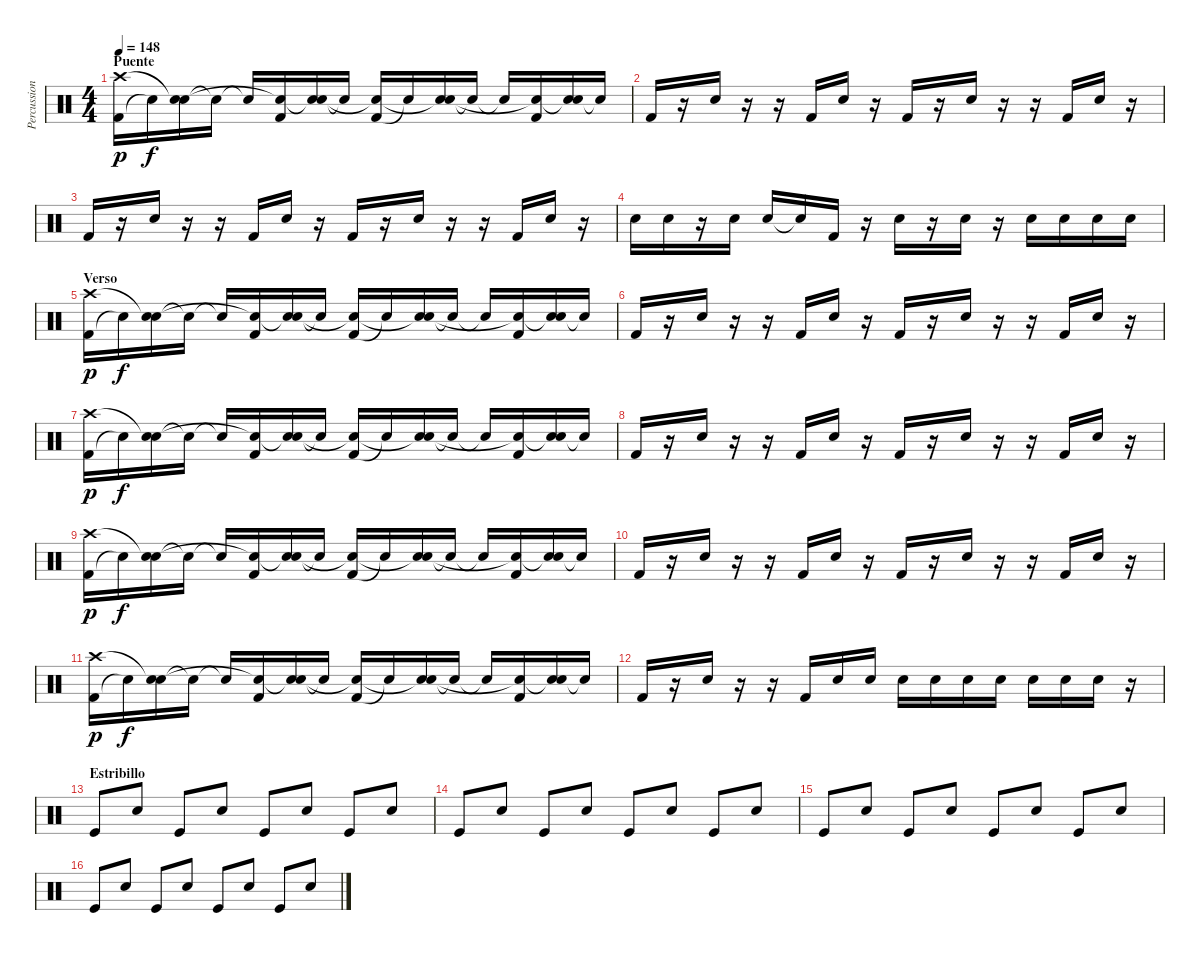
\track ("Percussion" "Percussion") {instrument percussion}
\staff {score}
\articulation defaults
\ts (4 4)
\section ("" "Puente")
\tempo 148
\clef neutral
\ks c
("Kick (hit) 2" "Crash high (hit)").16{dy p} "Snare (hit)"{t}.16{dy f} ("Electric Snare (hit)" "Snare (hit)"{t}).16 "Snare (hit)"{t}.16 "Snare (hit)"{t}.16 ("Kick (hit) 2" "Snare (hit)"{t}).16 ("Electric Snare (hit)" "Snare (hit)"{t}).16 "Snare (hit)"{t}.16 ("Kick (hit) 2" "Snare (hit)"{t}).16 "Snare (hit)"{t}.16 ("Electric Snare (hit)" "Snare (hit)"{t}).16 "Snare (hit)"{t}.16 "Snare (hit)"{t}.16 ("Kick (hit) 2" "Snare (hit)"{t}).16 ("Electric Snare (hit)" "Snare (hit)"{t}).16 "Snare (hit)"{t}.16 |
"Kick (hit) 2".16 r.16 "Electric Snare (hit)".16 r.16 r.16 "Kick (hit) 2".16 "Electric Snare (hit)".16 r.16 "Kick (hit) 2".16 r.16 "Electric Snare (hit)".16 r.16 r.16 "Kick (hit) 2".16 "Electric Snare (hit)".16 r.16 |
"Kick (hit) 2".16 r.16 "Electric Snare (hit)".16 r.16 r.16 "Kick (hit) 2".16 "Electric Snare (hit)".16 r.16 "Kick (hit) 2".16 r.16 "Electric Snare (hit)".16 r.16 r.16 "Kick (hit) 2".16 "Electric Snare (hit)".16 r.16 |
"Electric Snare (hit)".16 "Electric Snare (hit)".16 r.16 "Electric Snare (hit)".16 "Electric Snare (hit)".16 "Electric Snare (hit)"{t}.16 "Kick (hit) 2".16 r.16 "Electric Snare (hit)".16 r.16 "Electric Snare (hit)".16 r.16 "Electric Snare (hit)".16 "Electric Snare (hit)".16 "Electric Snare (hit)".16 "Electric Snare (hit)".16 |
\section ("" "Verso")
("Kick (hit) 2" "Crash high (hit)").16{dy p} "Snare (hit)"{t}.16{dy f} ("Electric Snare (hit)" "Snare (hit)"{t}).16 "Snare (hit)"{t}.16 "Snare (hit)"{t}.16 ("Kick (hit) 2" "Snare (hit)"{t}).16 ("Electric Snare (hit)" "Snare (hit)"{t}).16 "Snare (hit)"{t}.16 ("Kick (hit) 2" "Snare (hit)"{t}).16 "Snare (hit)"{t}.16 ("Electric Snare (hit)" "Snare (hit)"{t}).16 "Snare (hit)"{t}.16 "Snare (hit)"{t}.16 ("Kick (hit) 2" "Snare (hit)"{t}).16 ("Electric Snare (hit)" "Snare (hit)"{t}).16 "Snare (hit)"{t}.16 |
"Kick (hit) 2".16 r.16 "Electric Snare (hit)".16 r.16 r.16 "Kick (hit) 2".16 "Electric Snare (hit)".16 r.16 "Kick (hit) 2".16 r.16 "Electric Snare (hit)".16 r.16 r.16 "Kick (hit) 2".16 "Electric Snare (hit)".16 r.16 |
("Kick (hit) 2" "Crash high (hit)").16{dy p} "Snare (hit)"{t}.16{dy f} ("Electric Snare (hit)" "Snare (hit)"{t}).16 "Snare (hit)"{t}.16 "Snare (hit)"{t}.16 ("Kick (hit) 2" "Snare (hit)"{t}).16 ("Electric Snare (hit)" "Snare (hit)"{t}).16 "Snare (hit)"{t}.16 ("Kick (hit) 2" "Snare (hit)"{t}).16 "Snare (hit)"{t}.16 ("Electric Snare (hit)" "Snare (hit)"{t}).16 "Snare (hit)"{t}.16 "Snare (hit)"{t}.16 ("Kick (hit) 2" "Snare (hit)"{t}).16 ("Electric Snare (hit)" "Snare (hit)"{t}).16 "Snare (hit)"{t}.16 |
"Kick (hit) 2".16 r.16 "Electric Snare (hit)".16 r.16 r.16 "Kick (hit) 2".16 "Electric Snare (hit)".16 r.16 "Kick (hit) 2".16 r.16 "Electric Snare (hit)".16 r.16 r.16 "Kick (hit) 2".16 "Electric Snare (hit)".16 r.16 |
("Kick (hit) 2" "Crash high (hit)").16{dy p} "Snare (hit)"{t}.16{dy f} ("Electric Snare (hit)" "Snare (hit)"{t}).16 "Snare (hit)"{t}.16 "Snare (hit)"{t}.16 ("Kick (hit) 2" "Snare (hit)"{t}).16 ("Electric Snare (hit)" "Snare (hit)"{t}).16 "Snare (hit)"{t}.16 ("Kick (hit) 2" "Snare (hit)"{t}).16 "Snare (hit)"{t}.16 ("Electric Snare (hit)" "Snare (hit)"{t}).16 "Snare (hit)"{t}.16 "Snare (hit)"{t}.16 ("Kick (hit) 2" "Snare (hit)"{t}).16 ("Electric Snare (hit)" "Snare (hit)"{t}).16 "Snare (hit)"{t}.16 |
"Kick (hit) 2".16 r.16 "Electric Snare (hit)".16 r.16 r.16 "Kick (hit) 2".16 "Electric Snare (hit)".16 r.16 "Kick (hit) 2".16 r.16 "Electric Snare (hit)".16 r.16 r.16 "Kick (hit) 2".16 "Electric Snare (hit)".16 r.16 |
("Kick (hit) 2" "Crash high (hit)").16{dy p} "Snare (hit)"{t}.16{dy f} ("Electric Snare (hit)" "Snare (hit)"{t}).16 "Snare (hit)"{t}.16 "Snare (hit)"{t}.16 ("Kick (hit) 2" "Snare (hit)"{t}).16 ("Electric Snare (hit)" "Snare (hit)"{t}).16 "Snare (hit)"{t}.16 ("Kick (hit) 2" "Snare (hit)"{t}).16 "Snare (hit)"{t}.16 ("Electric Snare (hit)" "Snare (hit)"{t}).16 "Snare (hit)"{t}.16 "Snare (hit)"{t}.16 ("Kick (hit) 2" "Snare (hit)"{t}).16 ("Electric Snare (hit)" "Snare (hit)"{t}).16 "Snare (hit)"{t}.16 |
"Kick (hit) 2".16 r.16 "Electric Snare (hit)".16 r.16 r.16 "Kick (hit) 2".16 "Electric Snare (hit)".16 "Electric Snare (hit)".16 "Electric Snare (hit)".16 "Electric Snare (hit)".16 "Electric Snare (hit)".16 "Electric Snare (hit)".16 "Electric Snare (hit)".16 "Electric Snare (hit)".16 "Electric Snare (hit)".16 r.16 |
\section ("" "Estribillo")
"Kick (hit)".8 "Electric Snare (hit)".8 "Kick (hit)".8 "Electric Snare (hit)".8 "Kick (hit)".8 "Electric Snare (hit)".8 "Kick (hit)".8 "Electric Snare (hit)".8 |
"Kick (hit)".8 "Electric Snare (hit)".8 "Kick (hit)".8 "Electric Snare (hit)".8 "Kick (hit)".8 "Electric Snare (hit)".8 "Kick (hit)".8 "Electric Snare (hit)".8 |
"Kick (hit)".8 "Electric Snare (hit)".8 "Kick (hit)".8 "Electric Snare (hit)".8 "Kick (hit)".8 "Electric Snare (hit)".8 "Kick (hit)".8 "Electric Snare (hit)".8 |
"Kick (hit)".8 "Electric Snare (hit)".8 "Kick (hit)".8 "Electric Snare (hit)".8 "Kick (hit)".8 "Electric Snare (hit)".8 "Kick (hit)".8 "Electric Snare (hit)".8
